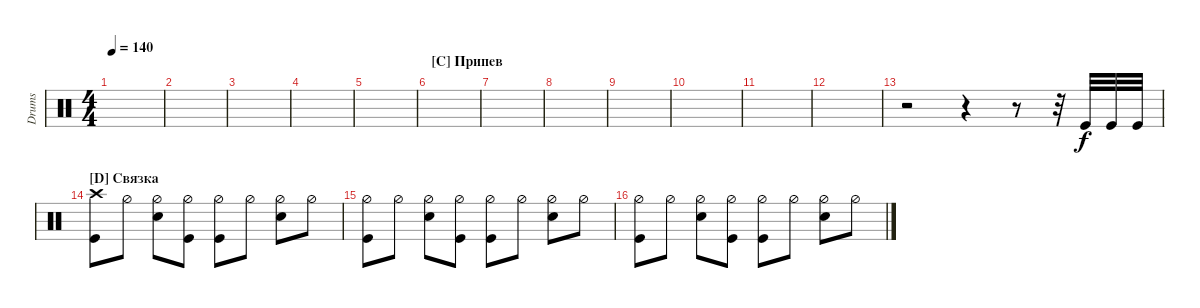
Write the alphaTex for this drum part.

\track ("Drumkit" "Drums") {instrument percussion}
\staff {score}
\articulation defaults
\ts (4 4)
\tempo 140
\clef neutral
\ks c
|
|
|
|
|
\section ("C" "Припев")
|
|
|
|
|
|
|
r.2 r.4 r.8 r.32 "Kick (hit)".32 "Kick (hit)".32 "Kick (hit)".32 |
\section ("D" "Связка")
("Kick (hit)" "Crash high (hit)").8 "Hi-Hat (half)".8 ("Snare (hit) 2" "Hi-Hat (half)").8 ("Kick (hit)" "Hi-Hat (half)").8 ("Kick (hit)" "Hi-Hat (half)").8 "Hi-Hat (half)".8 ("Snare (hit) 2" "Hi-Hat (half)").8 "Hi-Hat (half)".8 |
("Kick (hit)" "Hi-Hat (half)").8 "Hi-Hat (half)".8 ("Snare (hit) 2" "Hi-Hat (half)").8 ("Kick (hit)" "Hi-Hat (half)").8 ("Kick (hit)" "Hi-Hat (half)").8 "Hi-Hat (half)".8 ("Snare (hit) 2" "Hi-Hat (half)").8 "Hi-Hat (half)".8 |
("Kick (hit)" "Hi-Hat (half)").8 "Hi-Hat (half)".8 ("Snare (hit) 2" "Hi-Hat (half)").8 ("Kick (hit)" "Hi-Hat (half)").8 ("Kick (hit)" "Hi-Hat (half)").8 "Hi-Hat (half)".8 ("Snare (hit) 2" "Hi-Hat (half)").8 "Hi-Hat (half)".8
